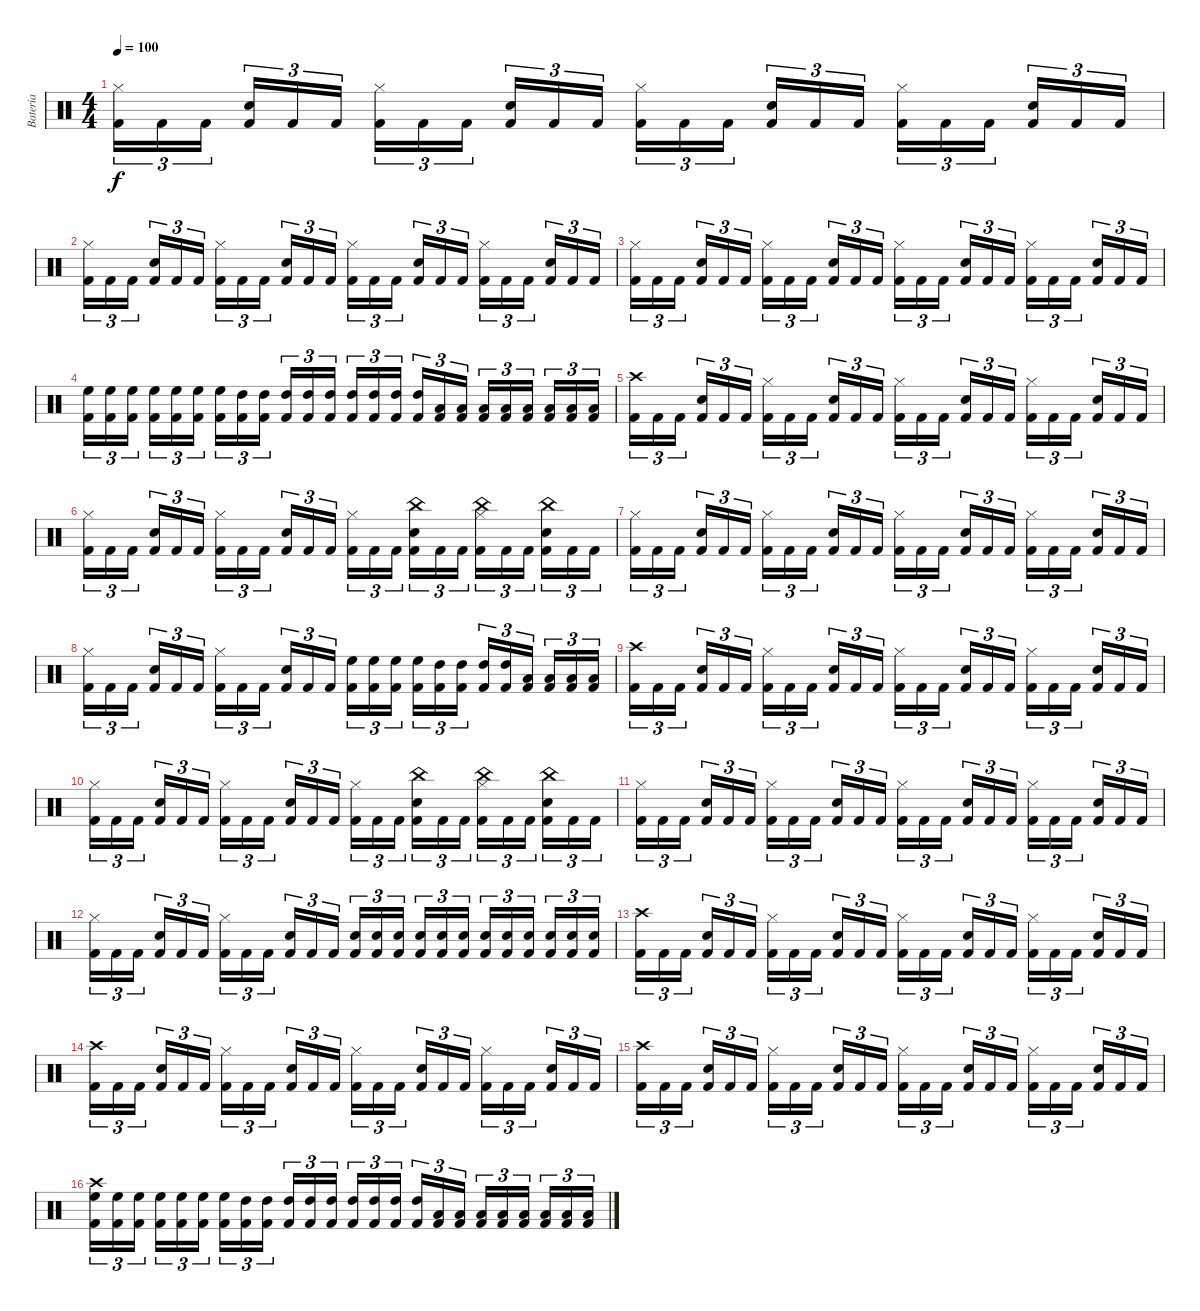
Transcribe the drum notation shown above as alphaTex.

\track ("Bateria" "Bateria") {instrument percussion}
\staff {score}
\articulation defaults
\ts (4 4)
\tempo 100
\clef neutral
\ks c
("Hi-Hat (closed)" "Kick (hit) 2").16{tu (3 2) dy f} "Kick (hit) 2".16{tu (3 2)} "Kick (hit) 2".16{tu (3 2)} ("Snare (hit) 2" "Kick (hit) 2").16{tu (3 2)} "Kick (hit) 2".16{tu (3 2)} "Kick (hit) 2".16{tu (3 2)} ("Hi-Hat (closed)" "Kick (hit) 2").16{tu (3 2)} "Kick (hit) 2".16{tu (3 2)} "Kick (hit) 2".16{tu (3 2)} ("Snare (hit) 2" "Kick (hit) 2").16{tu (3 2)} "Kick (hit) 2".16{tu (3 2)} "Kick (hit) 2".16{tu (3 2)} ("Hi-Hat (closed)" "Kick (hit) 2").16{tu (3 2)} "Kick (hit) 2".16{tu (3 2)} "Kick (hit) 2".16{tu (3 2)} ("Snare (hit) 2" "Kick (hit) 2").16{tu (3 2)} "Kick (hit) 2".16{tu (3 2)} "Kick (hit) 2".16{tu (3 2)} ("Hi-Hat (closed)" "Kick (hit) 2").16{tu (3 2)} "Kick (hit) 2".16{tu (3 2)} "Kick (hit) 2".16{tu (3 2)} ("Snare (hit) 2" "Kick (hit) 2").16{tu (3 2)} "Kick (hit) 2".16{tu (3 2)} "Kick (hit) 2".16{tu (3 2)} |
("Hi-Hat (closed)" "Kick (hit) 2").16{tu (3 2)} "Kick (hit) 2".16{tu (3 2)} "Kick (hit) 2".16{tu (3 2)} ("Snare (hit) 2" "Kick (hit) 2").16{tu (3 2)} "Kick (hit) 2".16{tu (3 2)} "Kick (hit) 2".16{tu (3 2)} ("Hi-Hat (closed)" "Kick (hit) 2").16{tu (3 2)} "Kick (hit) 2".16{tu (3 2)} "Kick (hit) 2".16{tu (3 2)} ("Snare (hit) 2" "Kick (hit) 2").16{tu (3 2)} "Kick (hit) 2".16{tu (3 2)} "Kick (hit) 2".16{tu (3 2)} ("Hi-Hat (closed)" "Kick (hit) 2").16{tu (3 2)} "Kick (hit) 2".16{tu (3 2)} "Kick (hit) 2".16{tu (3 2)} ("Snare (hit) 2" "Kick (hit) 2").16{tu (3 2)} "Kick (hit) 2".16{tu (3 2)} "Kick (hit) 2".16{tu (3 2)} ("Hi-Hat (closed)" "Kick (hit) 2").16{tu (3 2)} "Kick (hit) 2".16{tu (3 2)} "Kick (hit) 2".16{tu (3 2)} ("Snare (hit) 2" "Kick (hit) 2").16{tu (3 2)} "Kick (hit) 2".16{tu (3 2)} "Kick (hit) 2".16{tu (3 2)} |
("Hi-Hat (closed)" "Kick (hit) 2").16{tu (3 2)} "Kick (hit) 2".16{tu (3 2)} "Kick (hit) 2".16{tu (3 2)} ("Snare (hit) 2" "Kick (hit) 2").16{tu (3 2)} "Kick (hit) 2".16{tu (3 2)} "Kick (hit) 2".16{tu (3 2)} ("Hi-Hat (closed)" "Kick (hit) 2").16{tu (3 2)} "Kick (hit) 2".16{tu (3 2)} "Kick (hit) 2".16{tu (3 2)} ("Snare (hit) 2" "Kick (hit) 2").16{tu (3 2)} "Kick (hit) 2".16{tu (3 2)} "Kick (hit) 2".16{tu (3 2)} ("Hi-Hat (closed)" "Kick (hit) 2").16{tu (3 2)} "Kick (hit) 2".16{tu (3 2)} "Kick (hit) 2".16{tu (3 2)} ("Snare (hit) 2" "Kick (hit) 2").16{tu (3 2)} "Kick (hit) 2".16{tu (3 2)} "Kick (hit) 2".16{tu (3 2)} ("Hi-Hat (closed)" "Kick (hit) 2").16{tu (3 2)} "Kick (hit) 2".16{tu (3 2)} "Kick (hit) 2".16{tu (3 2)} ("Snare (hit) 2" "Kick (hit) 2").16{tu (3 2)} "Kick (hit) 2".16{tu (3 2)} "Kick (hit) 2".16{tu (3 2)} |
("High Floor Tom (hit)" "Kick (hit) 2").16{tu (3 2)} ("High Floor Tom (hit)" "Kick (hit) 2").16{tu (3 2)} ("High Floor Tom (hit)" "Kick (hit) 2").16{tu (3 2)} ("High Floor Tom (hit)" "Kick (hit) 2").16{tu (3 2)} ("High Floor Tom (hit)" "Kick (hit) 2").16{tu (3 2)} ("High Floor Tom (hit)" "Kick (hit) 2").16{tu (3 2)} ("High Floor Tom (hit)" "Kick (hit) 2").16{tu (3 2)} ("High Tom (hit)" "Kick (hit) 2").16{tu (3 2)} ("High Tom (hit)" "Kick (hit) 2").16{tu (3 2)} ("High Tom (hit)" "Kick (hit) 2").16{tu (3 2)} ("High Tom (hit)" "Kick (hit) 2").16{tu (3 2)} ("High Tom (hit)" "Kick (hit) 2").16{tu (3 2)} ("High Tom (hit)" "Kick (hit) 2").16{tu (3 2)} ("High Tom (hit)" "Kick (hit) 2").16{tu (3 2)} ("High Tom (hit)" "Kick (hit) 2").16{tu (3 2)} ("High Tom (hit)" "Kick (hit) 2").16{tu (3 2)} ("Low Tom (hit)" "Kick (hit) 2").16{tu (3 2)} ("Low Tom (hit)" "Kick (hit) 2").16{tu (3 2)} ("Low Tom (hit)" "Kick (hit) 2").16{tu (3 2)} ("Low Tom (hit)" "Kick (hit) 2").16{tu (3 2)} ("Low Tom (hit)" "Kick (hit) 2").16{tu (3 2)} ("Low Tom (hit)" "Kick (hit) 2").16{tu (3 2)} ("Low Tom (hit)" "Kick (hit) 2").16{tu (3 2)} ("Low Tom (hit)" "Kick (hit) 2").16{tu (3 2)} |
("Crash high (hit)" "Kick (hit) 2").16{tu (3 2)} "Kick (hit) 2".16{tu (3 2)} "Kick (hit) 2".16{tu (3 2)} ("Snare (hit) 2" "Kick (hit) 2").16{tu (3 2)} "Kick (hit) 2".16{tu (3 2)} "Kick (hit) 2".16{tu (3 2)} ("Hi-Hat (closed)" "Kick (hit) 2").16{tu (3 2)} "Kick (hit) 2".16{tu (3 2)} "Kick (hit) 2".16{tu (3 2)} ("Snare (hit) 2" "Kick (hit) 2").16{tu (3 2)} "Kick (hit) 2".16{tu (3 2)} "Kick (hit) 2".16{tu (3 2)} ("Hi-Hat (closed)" "Kick (hit) 2").16{tu (3 2)} "Kick (hit) 2".16{tu (3 2)} "Kick (hit) 2".16{tu (3 2)} ("Snare (hit) 2" "Kick (hit) 2").16{tu (3 2)} "Kick (hit) 2".16{tu (3 2)} "Kick (hit) 2".16{tu (3 2)} ("Hi-Hat (closed)" "Kick (hit) 2").16{tu (3 2)} "Kick (hit) 2".16{tu (3 2)} "Kick (hit) 2".16{tu (3 2)} ("Snare (hit) 2" "Kick (hit) 2").16{tu (3 2)} "Kick (hit) 2".16{tu (3 2)} "Kick (hit) 2".16{tu (3 2)} |
("Hi-Hat (closed)" "Kick (hit) 2").16{tu (3 2)} "Kick (hit) 2".16{tu (3 2)} "Kick (hit) 2".16{tu (3 2)} ("Snare (hit) 2" "Kick (hit) 2").16{tu (3 2)} "Kick (hit) 2".16{tu (3 2)} "Kick (hit) 2".16{tu (3 2)} ("Hi-Hat (closed)" "Kick (hit) 2").16{tu (3 2)} "Kick (hit) 2".16{tu (3 2)} "Kick (hit) 2".16{tu (3 2)} ("Snare (hit) 2" "Kick (hit) 2").16{tu (3 2)} "Kick (hit) 2".16{tu (3 2)} "Kick (hit) 2".16{tu (3 2)} ("Hi-Hat (closed)" "Kick (hit) 2").16{tu (3 2)} "Kick (hit) 2".16{tu (3 2)} "Kick (hit) 2".16{tu (3 2)} ("China (hit)" "Snare (hit) 2" "Kick (hit) 2").16{tu (3 2)} "Kick (hit) 2".16{tu (3 2)} "Kick (hit) 2".16{tu (3 2)} ("China (hit)" "Hi-Hat (closed)" "Kick (hit) 2").16{tu (3 2)} "Kick (hit) 2".16{tu (3 2)} "Kick (hit) 2".16{tu (3 2)} ("China (hit)" "Snare (hit) 2" "Kick (hit) 2").16{tu (3 2)} "Kick (hit) 2".16{tu (3 2)} "Kick (hit) 2".16{tu (3 2)} |
("Hi-Hat (closed)" "Kick (hit) 2").16{tu (3 2)} "Kick (hit) 2".16{tu (3 2)} "Kick (hit) 2".16{tu (3 2)} ("Snare (hit) 2" "Kick (hit) 2").16{tu (3 2)} "Kick (hit) 2".16{tu (3 2)} "Kick (hit) 2".16{tu (3 2)} ("Hi-Hat (closed)" "Kick (hit) 2").16{tu (3 2)} "Kick (hit) 2".16{tu (3 2)} "Kick (hit) 2".16{tu (3 2)} ("Snare (hit) 2" "Kick (hit) 2").16{tu (3 2)} "Kick (hit) 2".16{tu (3 2)} "Kick (hit) 2".16{tu (3 2)} ("Hi-Hat (closed)" "Kick (hit) 2").16{tu (3 2)} "Kick (hit) 2".16{tu (3 2)} "Kick (hit) 2".16{tu (3 2)} ("Snare (hit) 2" "Kick (hit) 2").16{tu (3 2)} "Kick (hit) 2".16{tu (3 2)} "Kick (hit) 2".16{tu (3 2)} ("Hi-Hat (closed)" "Kick (hit) 2").16{tu (3 2)} "Kick (hit) 2".16{tu (3 2)} "Kick (hit) 2".16{tu (3 2)} ("Snare (hit) 2" "Kick (hit) 2").16{tu (3 2)} "Kick (hit) 2".16{tu (3 2)} "Kick (hit) 2".16{tu (3 2)} |
("Hi-Hat (closed)" "Kick (hit) 2").16{tu (3 2)} "Kick (hit) 2".16{tu (3 2)} "Kick (hit) 2".16{tu (3 2)} ("Snare (hit) 2" "Kick (hit) 2").16{tu (3 2)} "Kick (hit) 2".16{tu (3 2)} "Kick (hit) 2".16{tu (3 2)} ("Hi-Hat (closed)" "Kick (hit) 2").16{tu (3 2)} "Kick (hit) 2".16{tu (3 2)} "Kick (hit) 2".16{tu (3 2)} ("Snare (hit) 2" "Kick (hit) 2").16{tu (3 2)} "Kick (hit) 2".16{tu (3 2)} "Kick (hit) 2".16{tu (3 2)} ("High Floor Tom (hit)" "Kick (hit) 2").16{tu (3 2)} ("High Floor Tom (hit)" "Kick (hit) 2").16{tu (3 2)} ("High Floor Tom (hit)" "Kick (hit) 2").16{tu (3 2)} ("High Floor Tom (hit)" "Kick (hit) 2").16{tu (3 2)} ("High Tom (hit)" "Kick (hit) 2").16{tu (3 2)} ("High Tom (hit)" "Kick (hit) 2").16{tu (3 2)} ("High Tom (hit)" "Kick (hit) 2").16{tu (3 2)} ("High Tom (hit)" "Kick (hit) 2").16{tu (3 2)} ("Low Tom (hit)" "Kick (hit) 2").16{tu (3 2)} ("Low Tom (hit)" "Kick (hit) 2").16{tu (3 2)} ("Low Tom (hit)" "Kick (hit) 2").16{tu (3 2)} ("Low Tom (hit)" "Kick (hit) 2").16{tu (3 2)} |
("Crash high (hit)" "Kick (hit) 2").16{tu (3 2)} "Kick (hit) 2".16{tu (3 2)} "Kick (hit) 2".16{tu (3 2)} ("Snare (hit) 2" "Kick (hit) 2").16{tu (3 2)} "Kick (hit) 2".16{tu (3 2)} "Kick (hit) 2".16{tu (3 2)} ("Hi-Hat (closed)" "Kick (hit) 2").16{tu (3 2)} "Kick (hit) 2".16{tu (3 2)} "Kick (hit) 2".16{tu (3 2)} ("Snare (hit) 2" "Kick (hit) 2").16{tu (3 2)} "Kick (hit) 2".16{tu (3 2)} "Kick (hit) 2".16{tu (3 2)} ("Hi-Hat (closed)" "Kick (hit) 2").16{tu (3 2)} "Kick (hit) 2".16{tu (3 2)} "Kick (hit) 2".16{tu (3 2)} ("Snare (hit) 2" "Kick (hit) 2").16{tu (3 2)} "Kick (hit) 2".16{tu (3 2)} "Kick (hit) 2".16{tu (3 2)} ("Hi-Hat (closed)" "Kick (hit) 2").16{tu (3 2)} "Kick (hit) 2".16{tu (3 2)} "Kick (hit) 2".16{tu (3 2)} ("Snare (hit) 2" "Kick (hit) 2").16{tu (3 2)} "Kick (hit) 2".16{tu (3 2)} "Kick (hit) 2".16{tu (3 2)} |
("Hi-Hat (closed)" "Kick (hit) 2").16{tu (3 2)} "Kick (hit) 2".16{tu (3 2)} "Kick (hit) 2".16{tu (3 2)} ("Snare (hit) 2" "Kick (hit) 2").16{tu (3 2)} "Kick (hit) 2".16{tu (3 2)} "Kick (hit) 2".16{tu (3 2)} ("Hi-Hat (closed)" "Kick (hit) 2").16{tu (3 2)} "Kick (hit) 2".16{tu (3 2)} "Kick (hit) 2".16{tu (3 2)} ("Snare (hit) 2" "Kick (hit) 2").16{tu (3 2)} "Kick (hit) 2".16{tu (3 2)} "Kick (hit) 2".16{tu (3 2)} ("Hi-Hat (closed)" "Kick (hit) 2").16{tu (3 2)} "Kick (hit) 2".16{tu (3 2)} "Kick (hit) 2".16{tu (3 2)} ("China (hit)" "Snare (hit) 2" "Kick (hit) 2").16{tu (3 2)} "Kick (hit) 2".16{tu (3 2)} "Kick (hit) 2".16{tu (3 2)} ("China (hit)" "Hi-Hat (closed)" "Kick (hit) 2").16{tu (3 2)} "Kick (hit) 2".16{tu (3 2)} "Kick (hit) 2".16{tu (3 2)} ("China (hit)" "Snare (hit) 2" "Kick (hit) 2").16{tu (3 2)} "Kick (hit) 2".16{tu (3 2)} "Kick (hit) 2".16{tu (3 2)} |
("Hi-Hat (closed)" "Kick (hit) 2").16{tu (3 2)} "Kick (hit) 2".16{tu (3 2)} "Kick (hit) 2".16{tu (3 2)} ("Snare (hit) 2" "Kick (hit) 2").16{tu (3 2)} "Kick (hit) 2".16{tu (3 2)} "Kick (hit) 2".16{tu (3 2)} ("Hi-Hat (closed)" "Kick (hit) 2").16{tu (3 2)} "Kick (hit) 2".16{tu (3 2)} "Kick (hit) 2".16{tu (3 2)} ("Snare (hit) 2" "Kick (hit) 2").16{tu (3 2)} "Kick (hit) 2".16{tu (3 2)} "Kick (hit) 2".16{tu (3 2)} ("Hi-Hat (closed)" "Kick (hit) 2").16{tu (3 2)} "Kick (hit) 2".16{tu (3 2)} "Kick (hit) 2".16{tu (3 2)} ("Snare (hit) 2" "Kick (hit) 2").16{tu (3 2)} "Kick (hit) 2".16{tu (3 2)} "Kick (hit) 2".16{tu (3 2)} ("Hi-Hat (closed)" "Kick (hit) 2").16{tu (3 2)} "Kick (hit) 2".16{tu (3 2)} "Kick (hit) 2".16{tu (3 2)} ("Snare (hit) 2" "Kick (hit) 2").16{tu (3 2)} "Kick (hit) 2".16{tu (3 2)} "Kick (hit) 2".16{tu (3 2)} |
("Hi-Hat (closed)" "Kick (hit) 2").16{tu (3 2)} "Kick (hit) 2".16{tu (3 2)} "Kick (hit) 2".16{tu (3 2)} ("Snare (hit) 2" "Kick (hit) 2").16{tu (3 2)} "Kick (hit) 2".16{tu (3 2)} "Kick (hit) 2".16{tu (3 2)} ("Hi-Hat (closed)" "Kick (hit) 2").16{tu (3 2)} "Kick (hit) 2".16{tu (3 2)} "Kick (hit) 2".16{tu (3 2)} ("Snare (hit) 2" "Kick (hit) 2").16{tu (3 2)} "Kick (hit) 2".16{tu (3 2)} "Kick (hit) 2".16{tu (3 2)} ("Snare (hit) 2" "Kick (hit) 2").16{tu (3 2)} ("Snare (hit) 2" "Kick (hit) 2").16{tu (3 2)} ("Snare (hit) 2" "Kick (hit) 2").16{tu (3 2)} ("Snare (hit) 2" "Kick (hit) 2").16{tu (3 2)} ("Snare (hit) 2" "Kick (hit) 2").16{tu (3 2)} ("Snare (hit) 2" "Kick (hit) 2").16{tu (3 2)} ("Snare (hit) 2" "Kick (hit) 2").16{tu (3 2)} ("Snare (hit) 2" "Kick (hit) 2").16{tu (3 2)} ("Snare (hit) 2" "Kick (hit) 2").16{tu (3 2)} ("Snare (hit) 2" "Kick (hit) 2").16{tu (3 2)} ("Snare (hit) 2" "Kick (hit) 2").16{tu (3 2)} ("Snare (hit) 2" "Kick (hit) 2").16{tu (3 2)} |
("Crash high (hit)" "Kick (hit) 2").16{tu (3 2)} "Kick (hit) 2".16{tu (3 2)} "Kick (hit) 2".16{tu (3 2)} ("Snare (hit) 2" "Kick (hit) 2").16{tu (3 2)} "Kick (hit) 2".16{tu (3 2)} "Kick (hit) 2".16{tu (3 2)} ("Hi-Hat (closed)" "Kick (hit) 2").16{tu (3 2)} "Kick (hit) 2".16{tu (3 2)} "Kick (hit) 2".16{tu (3 2)} ("Snare (hit) 2" "Kick (hit) 2").16{tu (3 2)} "Kick (hit) 2".16{tu (3 2)} "Kick (hit) 2".16{tu (3 2)} ("Hi-Hat (closed)" "Kick (hit) 2").16{tu (3 2)} "Kick (hit) 2".16{tu (3 2)} "Kick (hit) 2".16{tu (3 2)} ("Snare (hit) 2" "Kick (hit) 2").16{tu (3 2)} "Kick (hit) 2".16{tu (3 2)} "Kick (hit) 2".16{tu (3 2)} ("Hi-Hat (closed)" "Kick (hit) 2").16{tu (3 2)} "Kick (hit) 2".16{tu (3 2)} "Kick (hit) 2".16{tu (3 2)} ("Snare (hit) 2" "Kick (hit) 2").16{tu (3 2)} "Kick (hit) 2".16{tu (3 2)} "Kick (hit) 2".16{tu (3 2)} |
("Crash high (hit)" "Kick (hit) 2").16{tu (3 2)} "Kick (hit) 2".16{tu (3 2)} "Kick (hit) 2".16{tu (3 2)} ("Snare (hit) 2" "Kick (hit) 2").16{tu (3 2)} "Kick (hit) 2".16{tu (3 2)} "Kick (hit) 2".16{tu (3 2)} ("Hi-Hat (closed)" "Kick (hit) 2").16{tu (3 2)} "Kick (hit) 2".16{tu (3 2)} "Kick (hit) 2".16{tu (3 2)} ("Snare (hit) 2" "Kick (hit) 2").16{tu (3 2)} "Kick (hit) 2".16{tu (3 2)} "Kick (hit) 2".16{tu (3 2)} ("Hi-Hat (closed)" "Kick (hit) 2").16{tu (3 2)} "Kick (hit) 2".16{tu (3 2)} "Kick (hit) 2".16{tu (3 2)} ("Snare (hit) 2" "Kick (hit) 2").16{tu (3 2)} "Kick (hit) 2".16{tu (3 2)} "Kick (hit) 2".16{tu (3 2)} ("Hi-Hat (closed)" "Kick (hit) 2").16{tu (3 2)} "Kick (hit) 2".16{tu (3 2)} "Kick (hit) 2".16{tu (3 2)} ("Snare (hit) 2" "Kick (hit) 2").16{tu (3 2)} "Kick (hit) 2".16{tu (3 2)} "Kick (hit) 2".16{tu (3 2)} |
("Crash high (hit)" "Kick (hit) 2").16{tu (3 2)} "Kick (hit) 2".16{tu (3 2)} "Kick (hit) 2".16{tu (3 2)} ("Snare (hit) 2" "Kick (hit) 2").16{tu (3 2)} "Kick (hit) 2".16{tu (3 2)} "Kick (hit) 2".16{tu (3 2)} ("Hi-Hat (closed)" "Kick (hit) 2").16{tu (3 2)} "Kick (hit) 2".16{tu (3 2)} "Kick (hit) 2".16{tu (3 2)} ("Snare (hit) 2" "Kick (hit) 2").16{tu (3 2)} "Kick (hit) 2".16{tu (3 2)} "Kick (hit) 2".16{tu (3 2)} ("Hi-Hat (closed)" "Kick (hit) 2").16{tu (3 2)} "Kick (hit) 2".16{tu (3 2)} "Kick (hit) 2".16{tu (3 2)} ("Snare (hit) 2" "Kick (hit) 2").16{tu (3 2)} "Kick (hit) 2".16{tu (3 2)} "Kick (hit) 2".16{tu (3 2)} ("Hi-Hat (closed)" "Kick (hit) 2").16{tu (3 2)} "Kick (hit) 2".16{tu (3 2)} "Kick (hit) 2".16{tu (3 2)} ("Snare (hit) 2" "Kick (hit) 2").16{tu (3 2)} "Kick (hit) 2".16{tu (3 2)} "Kick (hit) 2".16{tu (3 2)} |
("Crash high (hit)" "High Floor Tom (hit)" "Kick (hit) 2").16{tu (3 2)} ("High Floor Tom (hit)" "Kick (hit) 2").16{tu (3 2)} ("High Floor Tom (hit)" "Kick (hit) 2").16{tu (3 2)} ("High Floor Tom (hit)" "Kick (hit) 2").16{tu (3 2)} ("High Floor Tom (hit)" "Kick (hit) 2").16{tu (3 2)} ("High Floor Tom (hit)" "Kick (hit) 2").16{tu (3 2)} ("High Floor Tom (hit)" "Kick (hit) 2").16{tu (3 2)} ("High Tom (hit)" "Kick (hit) 2").16{tu (3 2)} ("High Tom (hit)" "Kick (hit) 2").16{tu (3 2)} ("High Tom (hit)" "Kick (hit) 2").16{tu (3 2)} ("High Tom (hit)" "Kick (hit) 2").16{tu (3 2)} ("High Tom (hit)" "Kick (hit) 2").16{tu (3 2)} ("High Tom (hit)" "Kick (hit) 2").16{tu (3 2)} ("High Tom (hit)" "Kick (hit) 2").16{tu (3 2)} ("High Tom (hit)" "Kick (hit) 2").16{tu (3 2)} ("High Tom (hit)" "Kick (hit) 2").16{tu (3 2)} ("Low Tom (hit)" "Kick (hit) 2").16{tu (3 2)} ("Low Tom (hit)" "Kick (hit) 2").16{tu (3 2)} ("Low Tom (hit)" "Kick (hit) 2").16{tu (3 2)} ("Low Tom (hit)" "Kick (hit) 2").16{tu (3 2)} ("Low Tom (hit)" "Kick (hit) 2").16{tu (3 2)} ("Low Tom (hit)" "Kick (hit) 2").16{tu (3 2)} ("Low Tom (hit)" "Kick (hit) 2").16{tu (3 2)} ("Low Tom (hit)" "Kick (hit) 2").16{tu (3 2)}
